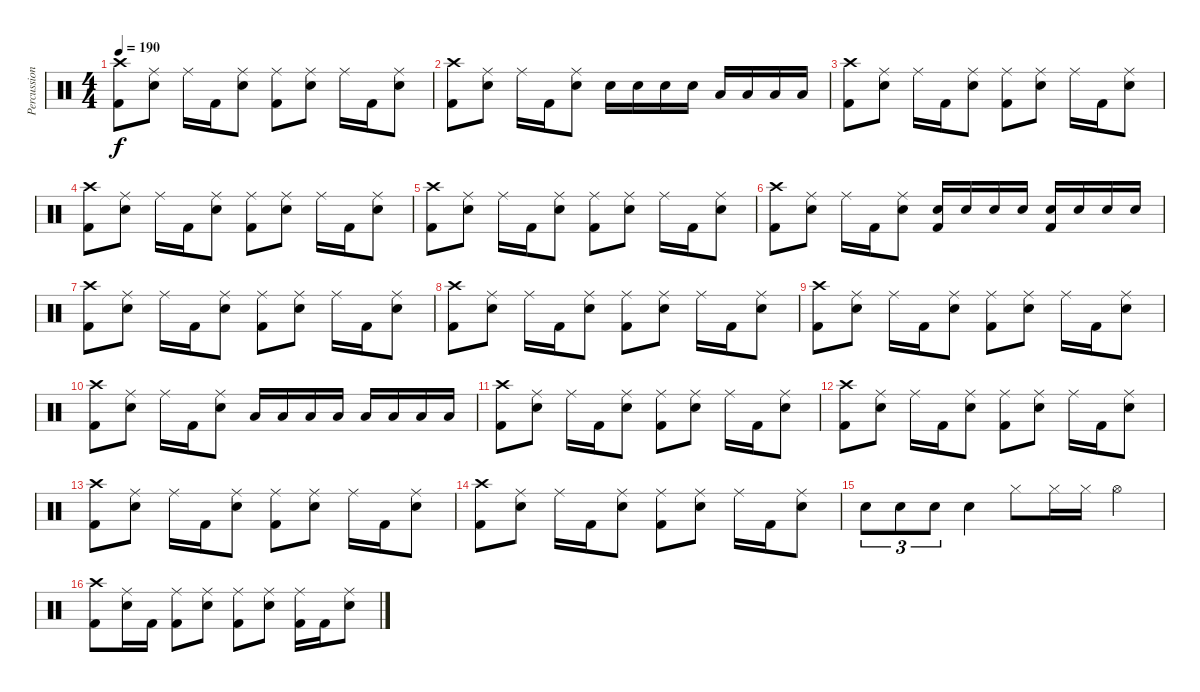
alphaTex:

\track ("Percussion" "Percussion") {instrument percussion}
\staff {score}
\articulation defaults
\ts (4 4)
\tempo 190
\clef neutral
\ks c
("Crash high (hit)" "Kick (hit) 2").8{dy f} ("Ride (middle)" "Electric Snare (hit)").8 "Ride (middle)".16 "Kick (hit) 2".16 ("Ride (middle)" "Electric Snare (hit)").8 ("Ride (middle)" "Kick (hit) 2").8 ("Ride (middle)" "Electric Snare (hit)").8 "Ride (middle)".16 "Kick (hit) 2".16 ("Ride (middle)" "Electric Snare (hit)").8 |
("Crash high (hit)" "Kick (hit) 2").8 ("Ride (middle)" "Electric Snare (hit)").8 "Ride (middle)".16 "Kick (hit) 2".16 ("Ride (middle)" "Electric Snare (hit)").8 "Electric Snare (hit)".16 "Electric Snare (hit)".16 "Electric Snare (hit)".16 "Electric Snare (hit)".16 "Low Tom (hit)".16 "Low Tom (hit)".16 "Low Tom (hit)".16 "Low Tom (hit)".16 |
("Crash high (hit)" "Kick (hit) 2").8 ("Ride (middle)" "Electric Snare (hit)").8 "Ride (middle)".16 "Kick (hit) 2".16 ("Ride (middle)" "Electric Snare (hit)").8 ("Ride (middle)" "Kick (hit) 2").8 ("Ride (middle)" "Electric Snare (hit)").8 "Ride (middle)".16 "Kick (hit) 2".16 ("Ride (middle)" "Electric Snare (hit)").8 |
("Crash high (hit)" "Kick (hit) 2").8 ("Ride (middle)" "Electric Snare (hit)").8 "Ride (middle)".16 "Kick (hit) 2".16 ("Ride (middle)" "Electric Snare (hit)").8 ("Ride (middle)" "Kick (hit) 2").8 ("Ride (middle)" "Electric Snare (hit)").8 "Ride (middle)".16 "Kick (hit) 2".16 ("Ride (middle)" "Electric Snare (hit)").8 |
("Crash high (hit)" "Kick (hit) 2").8 ("Ride (middle)" "Electric Snare (hit)").8 "Ride (middle)".16 "Kick (hit) 2".16 ("Ride (middle)" "Electric Snare (hit)").8 ("Ride (middle)" "Kick (hit) 2").8 ("Ride (middle)" "Electric Snare (hit)").8 "Ride (middle)".16 "Kick (hit) 2".16 ("Ride (middle)" "Electric Snare (hit)").8 |
("Crash high (hit)" "Kick (hit) 2").8 ("Ride (middle)" "Electric Snare (hit)").8 "Ride (middle)".16 "Kick (hit) 2".16 ("Ride (middle)" "Electric Snare (hit)").8 ("Electric Snare (hit)" "Kick (hit) 2").16 "Electric Snare (hit)".16 "Electric Snare (hit)".16 "Electric Snare (hit)".16 ("Electric Snare (hit)" "Kick (hit) 2").16 "Electric Snare (hit)".16 "Electric Snare (hit)".16 "Electric Snare (hit)".16 |
("Crash high (hit)" "Kick (hit) 2").8 ("Ride (middle)" "Electric Snare (hit)").8 "Ride (middle)".16 "Kick (hit) 2".16 ("Ride (middle)" "Electric Snare (hit)").8 ("Ride (middle)" "Kick (hit) 2").8 ("Ride (middle)" "Electric Snare (hit)").8 "Ride (middle)".16 "Kick (hit) 2".16 ("Ride (middle)" "Electric Snare (hit)").8 |
("Crash high (hit)" "Kick (hit) 2").8 ("Ride (middle)" "Electric Snare (hit)").8 "Ride (middle)".16 "Kick (hit) 2".16 ("Ride (middle)" "Electric Snare (hit)").8 ("Ride (middle)" "Kick (hit) 2").8 ("Ride (middle)" "Electric Snare (hit)").8 "Ride (middle)".16 "Kick (hit) 2".16 ("Ride (middle)" "Electric Snare (hit)").8 |
("Crash high (hit)" "Kick (hit) 2").8 ("Ride (middle)" "Electric Snare (hit)").8 "Ride (middle)".16 "Kick (hit) 2".16 ("Ride (middle)" "Electric Snare (hit)").8 ("Ride (middle)" "Kick (hit) 2").8 ("Ride (middle)" "Electric Snare (hit)").8 "Ride (middle)".16 "Kick (hit) 2".16 ("Ride (middle)" "Electric Snare (hit)").8 |
("Crash high (hit)" "Kick (hit) 2").8 ("Ride (middle)" "Electric Snare (hit)").8 "Ride (middle)".16 "Kick (hit) 2".16 ("Ride (middle)" "Electric Snare (hit)").8 "Low Tom (hit)".16 "Low Tom (hit)".16 "Low Tom (hit)".16 "Low Tom (hit)".16 "Low Floor Tom (hit)".16 "Low Floor Tom (hit)".16 "Low Floor Tom (hit)".16 "Low Floor Tom (hit)".16 |
("Crash high (hit)" "Kick (hit) 2").8 ("Ride (middle)" "Electric Snare (hit)").8 "Ride (middle)".16 "Kick (hit) 2".16 ("Ride (middle)" "Electric Snare (hit)").8 ("Ride (middle)" "Kick (hit) 2").8 ("Ride (middle)" "Electric Snare (hit)").8 "Ride (middle)".16 "Kick (hit) 2".16 ("Ride (middle)" "Electric Snare (hit)").8 |
("Crash high (hit)" "Kick (hit) 2").8 ("Ride (middle)" "Electric Snare (hit)").8 "Ride (middle)".16 "Kick (hit) 2".16 ("Ride (middle)" "Electric Snare (hit)").8 ("Ride (middle)" "Kick (hit) 2").8 ("Ride (middle)" "Electric Snare (hit)").8 "Ride (middle)".16 "Kick (hit) 2".16 ("Ride (middle)" "Electric Snare (hit)").8 |
("Crash high (hit)" "Kick (hit) 2").8 ("Ride (middle)" "Electric Snare (hit)").8 "Ride (middle)".16 "Kick (hit) 2".16 ("Ride (middle)" "Electric Snare (hit)").8 ("Ride (middle)" "Kick (hit) 2").8 ("Ride (middle)" "Electric Snare (hit)").8 "Ride (middle)".16 "Kick (hit) 2".16 ("Ride (middle)" "Electric Snare (hit)").8 |
("Crash high (hit)" "Kick (hit) 2").8 ("Ride (middle)" "Electric Snare (hit)").8 "Ride (middle)".16 "Kick (hit) 2".16 ("Ride (middle)" "Electric Snare (hit)").8 ("Ride (middle)" "Kick (hit) 2").8 ("Ride (middle)" "Electric Snare (hit)").8 "Ride (middle)".16 "Kick (hit) 2".16 ("Ride (middle)" "Electric Snare (hit)").8 |
"Electric Snare (hit)".8{tu (3 2)} "Electric Snare (hit)".8{tu (3 2)} "Electric Snare (hit)".8{tu (3 2)} "Electric Snare (hit)".4 "Hi-Hat (closed)".8 "Hi-Hat (closed)".16 "Hi-Hat (closed)".16 "Hi-Hat (open)".4 |
("Crash high (hit)" "Kick (hit) 2").8 ("Ride (middle)" "Electric Snare (hit)").16 "Kick (hit) 2".16 ("Ride (middle)" "Kick (hit) 2").8 ("Ride (middle)" "Electric Snare (hit)").8 ("Ride (middle)" "Kick (hit) 2").8 ("Ride (middle)" "Electric Snare (hit)").8 ("Ride (middle)" "Kick (hit) 2").16 "Kick (hit) 2".16 ("Ride (middle)" "Electric Snare (hit)").8
